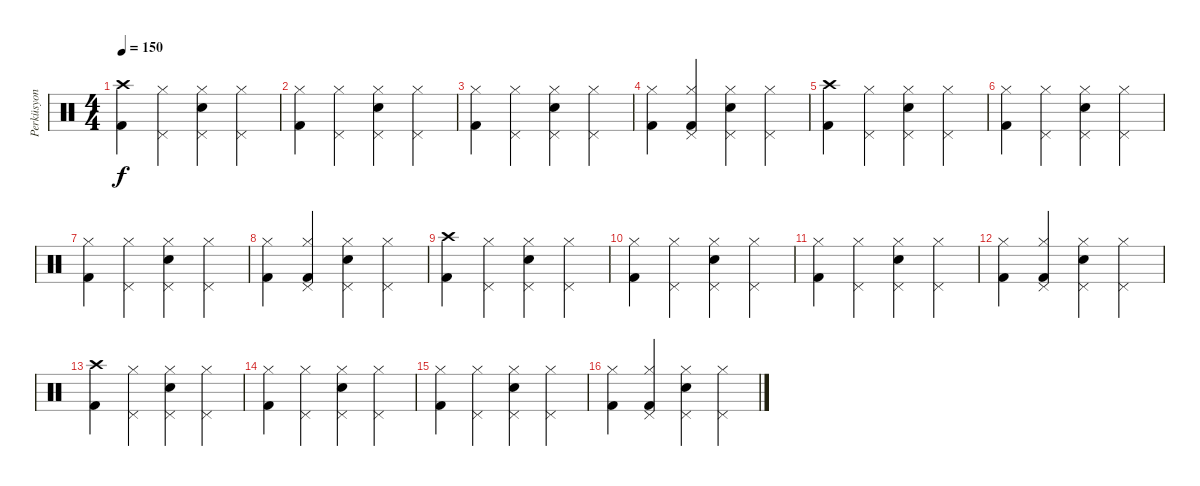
\track ("Perküsyon" "Perküsyon") {instrument percussion}
\staff {score}
\articulation defaults
\ts (4 4)
\tempo 150
\clef neutral
\ks c
("Crash high (hit)" "Kick (hit) 2").4{dy f} ("Hi-Hat (closed)" "Pedal Hi-Hat (hit)").4 ("Hi-Hat (closed)" "Pedal Hi-Hat (hit)" "Electric Snare (hit)").4 ("Hi-Hat (closed)" "Pedal Hi-Hat (hit)").4 |
("Hi-Hat (closed)" "Kick (hit) 2").4 ("Hi-Hat (closed)" "Pedal Hi-Hat (hit)").4 ("Hi-Hat (closed)" "Pedal Hi-Hat (hit)" "Electric Snare (hit)").4 ("Hi-Hat (closed)" "Pedal Hi-Hat (hit)").4 |
("Hi-Hat (closed)" "Kick (hit) 2").4 ("Hi-Hat (closed)" "Pedal Hi-Hat (hit)").4 ("Hi-Hat (closed)" "Pedal Hi-Hat (hit)" "Electric Snare (hit)").4 ("Hi-Hat (closed)" "Pedal Hi-Hat (hit)").4 |
("Hi-Hat (closed)" "Kick (hit) 2").4 ("Hi-Hat (closed)" "Pedal Hi-Hat (hit)" "Kick (hit) 2").4 ("Hi-Hat (closed)" "Pedal Hi-Hat (hit)" "Electric Snare (hit)").4 ("Hi-Hat (closed)" "Pedal Hi-Hat (hit)").4 |
("Crash high (hit)" "Kick (hit) 2").4 ("Hi-Hat (closed)" "Pedal Hi-Hat (hit)").4 ("Hi-Hat (closed)" "Pedal Hi-Hat (hit)" "Electric Snare (hit)").4 ("Hi-Hat (closed)" "Pedal Hi-Hat (hit)").4 |
("Hi-Hat (closed)" "Kick (hit) 2").4 ("Hi-Hat (closed)" "Pedal Hi-Hat (hit)").4 ("Hi-Hat (closed)" "Pedal Hi-Hat (hit)" "Electric Snare (hit)").4 ("Hi-Hat (closed)" "Pedal Hi-Hat (hit)").4 |
("Hi-Hat (closed)" "Kick (hit) 2").4 ("Hi-Hat (closed)" "Pedal Hi-Hat (hit)").4 ("Hi-Hat (closed)" "Pedal Hi-Hat (hit)" "Electric Snare (hit)").4 ("Hi-Hat (closed)" "Pedal Hi-Hat (hit)").4 |
("Hi-Hat (closed)" "Kick (hit) 2").4 ("Hi-Hat (closed)" "Pedal Hi-Hat (hit)" "Kick (hit) 2").4 ("Hi-Hat (closed)" "Pedal Hi-Hat (hit)" "Electric Snare (hit)").4 ("Hi-Hat (closed)" "Pedal Hi-Hat (hit)").4 |
("Crash high (hit)" "Kick (hit) 2").4 ("Hi-Hat (closed)" "Pedal Hi-Hat (hit)").4 ("Hi-Hat (closed)" "Pedal Hi-Hat (hit)" "Electric Snare (hit)").4 ("Hi-Hat (closed)" "Pedal Hi-Hat (hit)").4 |
("Hi-Hat (closed)" "Kick (hit) 2").4 ("Hi-Hat (closed)" "Pedal Hi-Hat (hit)").4 ("Hi-Hat (closed)" "Pedal Hi-Hat (hit)" "Electric Snare (hit)").4 ("Hi-Hat (closed)" "Pedal Hi-Hat (hit)").4 |
("Hi-Hat (closed)" "Kick (hit) 2").4 ("Hi-Hat (closed)" "Pedal Hi-Hat (hit)").4 ("Hi-Hat (closed)" "Pedal Hi-Hat (hit)" "Electric Snare (hit)").4 ("Hi-Hat (closed)" "Pedal Hi-Hat (hit)").4 |
("Hi-Hat (closed)" "Kick (hit) 2").4 ("Hi-Hat (closed)" "Pedal Hi-Hat (hit)" "Kick (hit) 2").4 ("Hi-Hat (closed)" "Pedal Hi-Hat (hit)" "Electric Snare (hit)").4 ("Hi-Hat (closed)" "Pedal Hi-Hat (hit)").4 |
("Crash high (hit)" "Kick (hit) 2").4 ("Hi-Hat (closed)" "Pedal Hi-Hat (hit)").4 ("Hi-Hat (closed)" "Pedal Hi-Hat (hit)" "Electric Snare (hit)").4 ("Hi-Hat (closed)" "Pedal Hi-Hat (hit)").4 |
("Hi-Hat (closed)" "Kick (hit) 2").4 ("Hi-Hat (closed)" "Pedal Hi-Hat (hit)").4 ("Hi-Hat (closed)" "Pedal Hi-Hat (hit)" "Electric Snare (hit)").4 ("Hi-Hat (closed)" "Pedal Hi-Hat (hit)").4 |
("Hi-Hat (closed)" "Kick (hit) 2").4 ("Hi-Hat (closed)" "Pedal Hi-Hat (hit)").4 ("Hi-Hat (closed)" "Pedal Hi-Hat (hit)" "Electric Snare (hit)").4 ("Hi-Hat (closed)" "Pedal Hi-Hat (hit)").4 |
("Hi-Hat (closed)" "Kick (hit) 2").4 ("Hi-Hat (closed)" "Pedal Hi-Hat (hit)" "Kick (hit) 2").4 ("Hi-Hat (closed)" "Pedal Hi-Hat (hit)" "Electric Snare (hit)").4 ("Hi-Hat (closed)" "Pedal Hi-Hat (hit)").4
